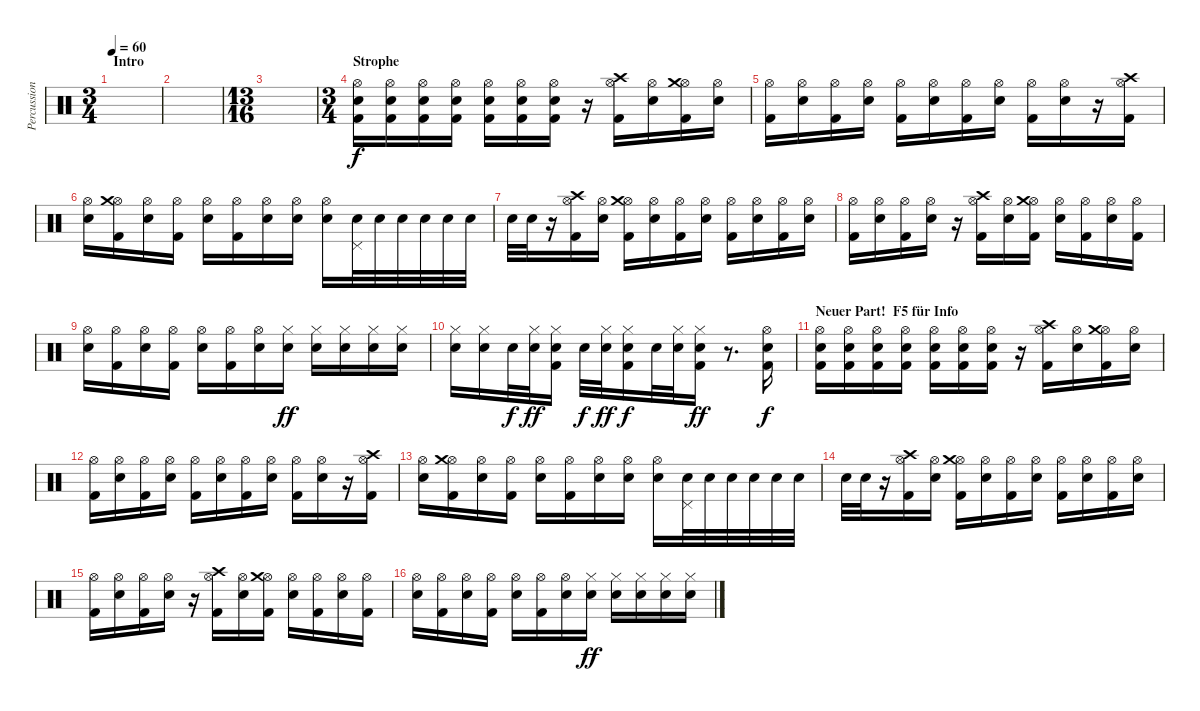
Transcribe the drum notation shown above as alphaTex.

\track ("Percussion" "Percussion") {instrument percussion}
\staff {score}
\articulation defaults
\ts (3 4)
\section ("" "Intro")
\tempo 60
\clef neutral
\ks c
|
|
\ts (13 16)
|
\ts (3 4)
\section ("" "Strophe")
("Hi-Hat (open)" "Electric Snare (hit)" "Kick (hit) 2").16 ("Hi-Hat (open)" "Electric Snare (hit)" "Kick (hit) 2").16 ("Hi-Hat (open)" "Electric Snare (hit)" "Kick (hit) 2").16 ("Hi-Hat (open)" "Electric Snare (hit)" "Kick (hit) 2").16 ("Hi-Hat (open)" "Electric Snare (hit)" "Kick (hit) 2").16 ("Hi-Hat (open)" "Electric Snare (hit)" "Kick (hit) 2").16 ("Hi-Hat (open)" "Electric Snare (hit)" "Kick (hit) 2").16 r.16 ("Hi-Hat (open)" "Crash high (hit)" "Kick (hit) 2").16 ("Hi-Hat (open)" "Electric Snare (hit)").16 ("Hi-Hat (open)" "Crash medium (hit)" "Kick (hit) 2").16 ("Hi-Hat (open)" "Electric Snare (hit)").16 |
("Hi-Hat (open)" "Kick (hit) 2").16 ("Hi-Hat (open)" "Electric Snare (hit)").16 ("Hi-Hat (open)" "Kick (hit) 2").16 ("Hi-Hat (open)" "Electric Snare (hit)").16 ("Hi-Hat (open)" "Kick (hit) 2").16 ("Hi-Hat (open)" "Electric Snare (hit)").16 ("Hi-Hat (open)" "Kick (hit) 2").16 ("Hi-Hat (open)" "Electric Snare (hit)").16 ("Hi-Hat (open)" "Kick (hit) 2").16 ("Hi-Hat (open)" "Electric Snare (hit)").16 r.16 ("Hi-Hat (open)" "Crash high (hit)" "Kick (hit) 2").16 |
("Hi-Hat (open)" "Electric Snare (hit)").16 ("Hi-Hat (open)" "Crash medium (hit)" "Kick (hit) 2").16 ("Hi-Hat (open)" "Electric Snare (hit)").16 ("Hi-Hat (open)" "Kick (hit) 2").16 ("Hi-Hat (open)" "Electric Snare (hit)").16 ("Hi-Hat (open)" "Kick (hit) 2").16 ("Hi-Hat (open)" "Electric Snare (hit)").16 ("Hi-Hat (open)" "Electric Snare (hit)").16 ("Hi-Hat (open)" "Electric Snare (hit)").16 ("Pedal Hi-Hat (hit)" "Electric Snare (hit)").32 "Electric Snare (hit)".32 "Electric Snare (hit)".32 "Electric Snare (hit)".32 "Electric Snare (hit)".32 "Electric Snare (hit)".32 |
"Electric Snare (hit)".32 "Electric Snare (hit)".32 r.16 ("Hi-Hat (open)" "Crash high (hit)" "Kick (hit) 2").16 ("Hi-Hat (open)" "Electric Snare (hit)").16 ("Hi-Hat (open)" "Crash medium (hit)" "Kick (hit) 2").16 ("Hi-Hat (open)" "Electric Snare (hit)").16 ("Hi-Hat (open)" "Kick (hit) 2").16 ("Hi-Hat (open)" "Electric Snare (hit)").16 ("Hi-Hat (open)" "Kick (hit) 2").16 ("Hi-Hat (open)" "Electric Snare (hit)").16 ("Hi-Hat (open)" "Kick (hit) 2").16 ("Hi-Hat (open)" "Electric Snare (hit)").16 |
("Hi-Hat (open)" "Kick (hit) 2").16 ("Hi-Hat (open)" "Electric Snare (hit)").16 ("Hi-Hat (open)" "Kick (hit) 2").16 ("Hi-Hat (open)" "Electric Snare (hit)").16 r.16 ("Hi-Hat (open)" "Crash high (hit)" "Kick (hit) 2").16 ("Hi-Hat (open)" "Electric Snare (hit)").16 ("Hi-Hat (open)" "Crash medium (hit)" "Kick (hit) 2").16 ("Hi-Hat (open)" "Electric Snare (hit)").16 ("Hi-Hat (open)" "Kick (hit) 2").16 ("Hi-Hat (open)" "Electric Snare (hit)").16 ("Hi-Hat (open)" "Kick (hit) 2").16 |
("Hi-Hat (open)" "Electric Snare (hit)").16 ("Hi-Hat (open)" "Kick (hit) 2").16 ("Hi-Hat (open)" "Electric Snare (hit)").16 ("Hi-Hat (open)" "Kick (hit) 2").16 ("Hi-Hat (open)" "Electric Snare (hit)").16 ("Hi-Hat (open)" "Kick (hit) 2").16 ("Hi-Hat (open)" "Electric Snare (hit)").16 ("Hi-Hat (closed)" "Electric Snare (hit)").16{dy ff} ("Hi-Hat (closed)" "Electric Snare (hit)").16 ("Hi-Hat (closed)" "Electric Snare (hit)").16 ("Hi-Hat (closed)" "Electric Snare (hit)").16 ("Hi-Hat (closed)" "Electric Snare (hit)").16 |
("Hi-Hat (closed)" "Electric Snare (hit)").16 ("Hi-Hat (closed)" "Electric Snare (hit)").16 "Electric Snare (hit)".32{dy f} ("Hi-Hat (closed)" "Electric Snare (hit)").32{dy ff} ("Hi-Hat (closed)" "Electric Snare (hit)" "Kick (hit) 2").16 "Electric Snare (hit)".32{dy f} ("Hi-Hat (closed)" "Electric Snare (hit)").32{dy ff} ("Hi-Hat (closed)" "Electric Snare (hit)" "Kick (hit) 2").16{dy f} "Electric Snare (hit)".32 ("Hi-Hat (closed)" "Electric Snare (hit)").32 ("Hi-Hat (closed)" "Electric Snare (hit)" "Kick (hit) 2").16{dy ff} r.8{d} ("Hi-Hat (open)" "Electric Snare (hit)" "Kick (hit) 2").16{dy f} |
\section ("" "Neuer Part!  F5 für Info")
("Hi-Hat (open)" "Electric Snare (hit)" "Kick (hit) 2").16 ("Hi-Hat (open)" "Electric Snare (hit)" "Kick (hit) 2").16 ("Hi-Hat (open)" "Electric Snare (hit)" "Kick (hit) 2").16 ("Hi-Hat (open)" "Electric Snare (hit)" "Kick (hit) 2").16 ("Hi-Hat (open)" "Electric Snare (hit)" "Kick (hit) 2").16 ("Hi-Hat (open)" "Electric Snare (hit)" "Kick (hit) 2").16 ("Hi-Hat (open)" "Electric Snare (hit)" "Kick (hit) 2").16 r.16 ("Hi-Hat (open)" "Crash high (hit)" "Kick (hit) 2").16 ("Hi-Hat (open)" "Electric Snare (hit)").16 ("Hi-Hat (open)" "Crash medium (hit)" "Kick (hit) 2").16 ("Hi-Hat (open)" "Electric Snare (hit)").16 |
("Hi-Hat (open)" "Kick (hit) 2").16 ("Hi-Hat (open)" "Electric Snare (hit)").16 ("Hi-Hat (open)" "Kick (hit) 2").16 ("Hi-Hat (open)" "Electric Snare (hit)").16 ("Hi-Hat (open)" "Kick (hit) 2").16 ("Hi-Hat (open)" "Electric Snare (hit)").16 ("Hi-Hat (open)" "Kick (hit) 2").16 ("Hi-Hat (open)" "Electric Snare (hit)").16 ("Hi-Hat (open)" "Kick (hit) 2").16 ("Hi-Hat (open)" "Electric Snare (hit)").16 r.16 ("Hi-Hat (open)" "Crash high (hit)" "Kick (hit) 2").16 |
("Hi-Hat (open)" "Electric Snare (hit)").16 ("Hi-Hat (open)" "Crash medium (hit)" "Kick (hit) 2").16 ("Hi-Hat (open)" "Electric Snare (hit)").16 ("Hi-Hat (open)" "Kick (hit) 2").16 ("Hi-Hat (open)" "Electric Snare (hit)").16 ("Hi-Hat (open)" "Kick (hit) 2").16 ("Hi-Hat (open)" "Electric Snare (hit)").16 ("Hi-Hat (open)" "Electric Snare (hit)").16 ("Hi-Hat (open)" "Electric Snare (hit)").16 ("Pedal Hi-Hat (hit)" "Electric Snare (hit)").32 "Electric Snare (hit)".32 "Electric Snare (hit)".32 "Electric Snare (hit)".32 "Electric Snare (hit)".32 "Electric Snare (hit)".32 |
"Electric Snare (hit)".32 "Electric Snare (hit)".32 r.16 ("Hi-Hat (open)" "Crash high (hit)" "Kick (hit) 2").16 ("Hi-Hat (open)" "Electric Snare (hit)").16 ("Hi-Hat (open)" "Crash medium (hit)" "Kick (hit) 2").16 ("Hi-Hat (open)" "Electric Snare (hit)").16 ("Hi-Hat (open)" "Kick (hit) 2").16 ("Hi-Hat (open)" "Electric Snare (hit)").16 ("Hi-Hat (open)" "Kick (hit) 2").16 ("Hi-Hat (open)" "Electric Snare (hit)").16 ("Hi-Hat (open)" "Kick (hit) 2").16 ("Hi-Hat (open)" "Electric Snare (hit)").16 |
("Hi-Hat (open)" "Kick (hit) 2").16 ("Hi-Hat (open)" "Electric Snare (hit)").16 ("Hi-Hat (open)" "Kick (hit) 2").16 ("Hi-Hat (open)" "Electric Snare (hit)").16 r.16 ("Hi-Hat (open)" "Crash high (hit)" "Kick (hit) 2").16 ("Hi-Hat (open)" "Electric Snare (hit)").16 ("Hi-Hat (open)" "Crash medium (hit)" "Kick (hit) 2").16 ("Hi-Hat (open)" "Electric Snare (hit)").16 ("Hi-Hat (open)" "Kick (hit) 2").16 ("Hi-Hat (open)" "Electric Snare (hit)").16 ("Hi-Hat (open)" "Kick (hit) 2").16 |
("Hi-Hat (open)" "Electric Snare (hit)").16 ("Hi-Hat (open)" "Kick (hit) 2").16 ("Hi-Hat (open)" "Electric Snare (hit)").16 ("Hi-Hat (open)" "Kick (hit) 2").16 ("Hi-Hat (open)" "Electric Snare (hit)").16 ("Hi-Hat (open)" "Kick (hit) 2").16 ("Hi-Hat (open)" "Electric Snare (hit)").16 ("Hi-Hat (closed)" "Electric Snare (hit)").16{dy ff} ("Hi-Hat (closed)" "Electric Snare (hit)").16 ("Hi-Hat (closed)" "Electric Snare (hit)").16 ("Hi-Hat (closed)" "Electric Snare (hit)").16 ("Hi-Hat (closed)" "Electric Snare (hit)").16
